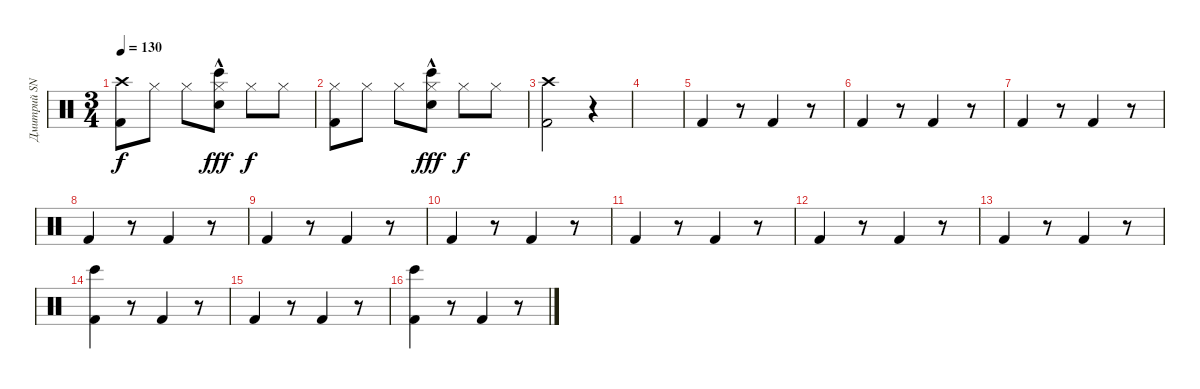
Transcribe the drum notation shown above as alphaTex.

\track ("Дмитрий SNAKE Хакимов" "Дмитрий SN") {instrument percussion}
\staff {score}
\articulation defaults
\ts (3 4)
\tempo 130
\clef neutral
\ks c
("Crash high (hit)" "Kick (hit) 2").8{dy f} "Hi-Hat (closed)".8 "Hi-Hat (closed)".8 ("Hi-Hat (closed)" "Snare (hit) 2"{hac} "Bongo High (hit)").8{dy fff} "Hi-Hat (closed)".8{dy f} "Hi-Hat (closed)".8 |
("Hi-Hat (closed)" "Kick (hit) 2").8 "Hi-Hat (closed)".8 "Hi-Hat (closed)".8 ("Hi-Hat (closed)" "Snare (hit) 2"{hac} "Bongo High (hit)").8{dy fff} "Hi-Hat (closed)".8{dy f} "Hi-Hat (closed)".8 |
("Crash high (hit)" "Kick (hit) 2").2 r.4 |
|
"Kick (hit) 2".4 r.8 "Kick (hit) 2".4 r.8 |
"Kick (hit) 2".4 r.8 "Kick (hit) 2".4 r.8 |
"Kick (hit) 2".4 r.8 "Kick (hit) 2".4 r.8 |
"Kick (hit) 2".4 r.8 "Kick (hit) 2".4 r.8 |
"Kick (hit) 2".4 r.8 "Kick (hit) 2".4 r.8 |
"Kick (hit) 2".4 r.8 "Kick (hit) 2".4 r.8 |
"Kick (hit) 2".4 r.8 "Kick (hit) 2".4 r.8 |
"Kick (hit) 2".4 r.8 "Kick (hit) 2".4 r.8 |
"Kick (hit) 2".4 r.8 "Kick (hit) 2".4 r.8 |
("Bongo High (hit)" "Kick (hit) 2").4 r.8 "Kick (hit) 2".4 r.8 |
"Kick (hit) 2".4 r.8 "Kick (hit) 2".4 r.8 |
("Bongo High (hit)" "Kick (hit) 2").4 r.8 "Kick (hit) 2".4 r.8
